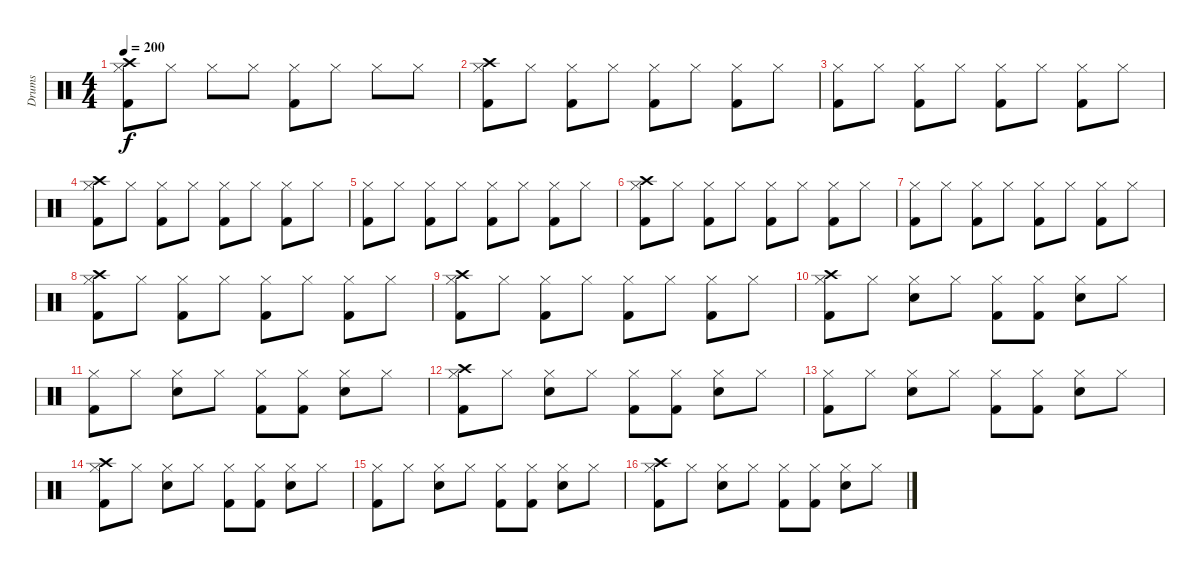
\track ("Drums" "Drums") {instrument percussion}
\staff {score}
\articulation defaults
\ts (4 4)
\tempo 200
\clef neutral
\ks c
("Hi-Hat (closed)" "Crash high (hit)" "Kick (hit) 2").8{dy f} "Hi-Hat (closed)".8 "Hi-Hat (closed)".8 "Hi-Hat (closed)".8 ("Hi-Hat (closed)" "Kick (hit) 2").8 "Hi-Hat (closed)".8 "Hi-Hat (closed)".8 "Hi-Hat (closed)".8 |
("Hi-Hat (closed)" "Crash high (hit)" "Kick (hit) 2").8 "Hi-Hat (closed)".8 ("Hi-Hat (closed)" "Kick (hit) 2").8 "Hi-Hat (closed)".8 ("Hi-Hat (closed)" "Kick (hit) 2").8 "Hi-Hat (closed)".8 ("Hi-Hat (closed)" "Kick (hit) 2").8 "Hi-Hat (closed)".8 |
("Hi-Hat (closed)" "Kick (hit) 2").8 "Hi-Hat (closed)".8 ("Hi-Hat (closed)" "Kick (hit) 2").8 "Hi-Hat (closed)".8 ("Hi-Hat (closed)" "Kick (hit) 2").8 "Hi-Hat (closed)".8 ("Hi-Hat (closed)" "Kick (hit) 2").8 "Hi-Hat (closed)".8 |
("Hi-Hat (closed)" "Crash high (hit)" "Kick (hit) 2").8 "Hi-Hat (closed)".8 ("Hi-Hat (closed)" "Kick (hit) 2").8 "Hi-Hat (closed)".8 ("Hi-Hat (closed)" "Kick (hit) 2").8 "Hi-Hat (closed)".8 ("Hi-Hat (closed)" "Kick (hit) 2").8 "Hi-Hat (closed)".8 |
("Hi-Hat (closed)" "Kick (hit) 2").8 "Hi-Hat (closed)".8 ("Hi-Hat (closed)" "Kick (hit) 2").8 "Hi-Hat (closed)".8 ("Hi-Hat (closed)" "Kick (hit) 2").8 "Hi-Hat (closed)".8 ("Hi-Hat (closed)" "Kick (hit) 2").8 "Hi-Hat (closed)".8 |
("Hi-Hat (closed)" "Crash high (hit)" "Kick (hit) 2").8 "Hi-Hat (closed)".8 ("Hi-Hat (closed)" "Kick (hit) 2").8 "Hi-Hat (closed)".8 ("Hi-Hat (closed)" "Kick (hit) 2").8 "Hi-Hat (closed)".8 ("Hi-Hat (closed)" "Kick (hit) 2").8 "Hi-Hat (closed)".8 |
("Hi-Hat (closed)" "Kick (hit) 2").8 "Hi-Hat (closed)".8 ("Hi-Hat (closed)" "Kick (hit) 2").8 "Hi-Hat (closed)".8 ("Hi-Hat (closed)" "Kick (hit) 2").8 "Hi-Hat (closed)".8 ("Hi-Hat (closed)" "Kick (hit) 2").8 "Hi-Hat (closed)".8 |
("Hi-Hat (closed)" "Crash high (hit)" "Kick (hit) 2").8 "Hi-Hat (closed)".8 ("Hi-Hat (closed)" "Kick (hit) 2").8 "Hi-Hat (closed)".8 ("Hi-Hat (closed)" "Kick (hit) 2").8 "Hi-Hat (closed)".8 ("Hi-Hat (closed)" "Kick (hit) 2").8 "Hi-Hat (closed)".8 |
("Hi-Hat (closed)" "Crash high (hit)" "Kick (hit) 2").8 "Hi-Hat (closed)".8 ("Hi-Hat (closed)" "Kick (hit) 2").8 "Hi-Hat (closed)".8 ("Hi-Hat (closed)" "Kick (hit) 2").8 "Hi-Hat (closed)".8 ("Hi-Hat (closed)" "Kick (hit) 2").8 "Hi-Hat (closed)".8 |
("Hi-Hat (closed)" "Crash high (hit)" "Kick (hit) 2").8 "Hi-Hat (closed)".8 ("Hi-Hat (closed)" "Electric Snare (hit)").8 "Hi-Hat (closed)".8 ("Hi-Hat (closed)" "Kick (hit) 2").8 ("Hi-Hat (closed)" "Kick (hit) 2").8 ("Hi-Hat (closed)" "Electric Snare (hit)").8 "Hi-Hat (closed)".8 |
("Hi-Hat (closed)" "Kick (hit) 2").8 "Hi-Hat (closed)".8 ("Hi-Hat (closed)" "Electric Snare (hit)").8 "Hi-Hat (closed)".8 ("Hi-Hat (closed)" "Kick (hit) 2").8 ("Hi-Hat (closed)" "Kick (hit) 2").8 ("Hi-Hat (closed)" "Electric Snare (hit)").8 "Hi-Hat (closed)".8 |
("Hi-Hat (closed)" "Crash high (hit)" "Kick (hit) 2").8 "Hi-Hat (closed)".8 ("Hi-Hat (closed)" "Electric Snare (hit)").8 "Hi-Hat (closed)".8 ("Hi-Hat (closed)" "Kick (hit) 2").8 ("Hi-Hat (closed)" "Kick (hit) 2").8 ("Hi-Hat (closed)" "Electric Snare (hit)").8 "Hi-Hat (closed)".8 |
("Hi-Hat (closed)" "Kick (hit) 2").8 "Hi-Hat (closed)".8 ("Hi-Hat (closed)" "Electric Snare (hit)").8 "Hi-Hat (closed)".8 ("Hi-Hat (closed)" "Kick (hit) 2").8 ("Hi-Hat (closed)" "Kick (hit) 2").8 ("Hi-Hat (closed)" "Electric Snare (hit)").8 "Hi-Hat (closed)".8 |
("Hi-Hat (closed)" "Crash high (hit)" "Kick (hit) 2").8 "Hi-Hat (closed)".8 ("Hi-Hat (closed)" "Electric Snare (hit)").8 "Hi-Hat (closed)".8 ("Hi-Hat (closed)" "Kick (hit) 2").8 ("Hi-Hat (closed)" "Kick (hit) 2").8 ("Hi-Hat (closed)" "Electric Snare (hit)").8 "Hi-Hat (closed)".8 |
("Hi-Hat (closed)" "Kick (hit) 2").8 "Hi-Hat (closed)".8 ("Hi-Hat (closed)" "Electric Snare (hit)").8 "Hi-Hat (closed)".8 ("Hi-Hat (closed)" "Kick (hit) 2").8 ("Hi-Hat (closed)" "Kick (hit) 2").8 ("Hi-Hat (closed)" "Electric Snare (hit)").8 "Hi-Hat (closed)".8 |
("Hi-Hat (closed)" "Crash high (hit)" "Kick (hit) 2").8 "Hi-Hat (closed)".8 ("Hi-Hat (closed)" "Electric Snare (hit)").8 "Hi-Hat (closed)".8 ("Hi-Hat (closed)" "Kick (hit) 2").8 ("Hi-Hat (closed)" "Kick (hit) 2").8 ("Hi-Hat (closed)" "Electric Snare (hit)").8 "Hi-Hat (closed)".8
